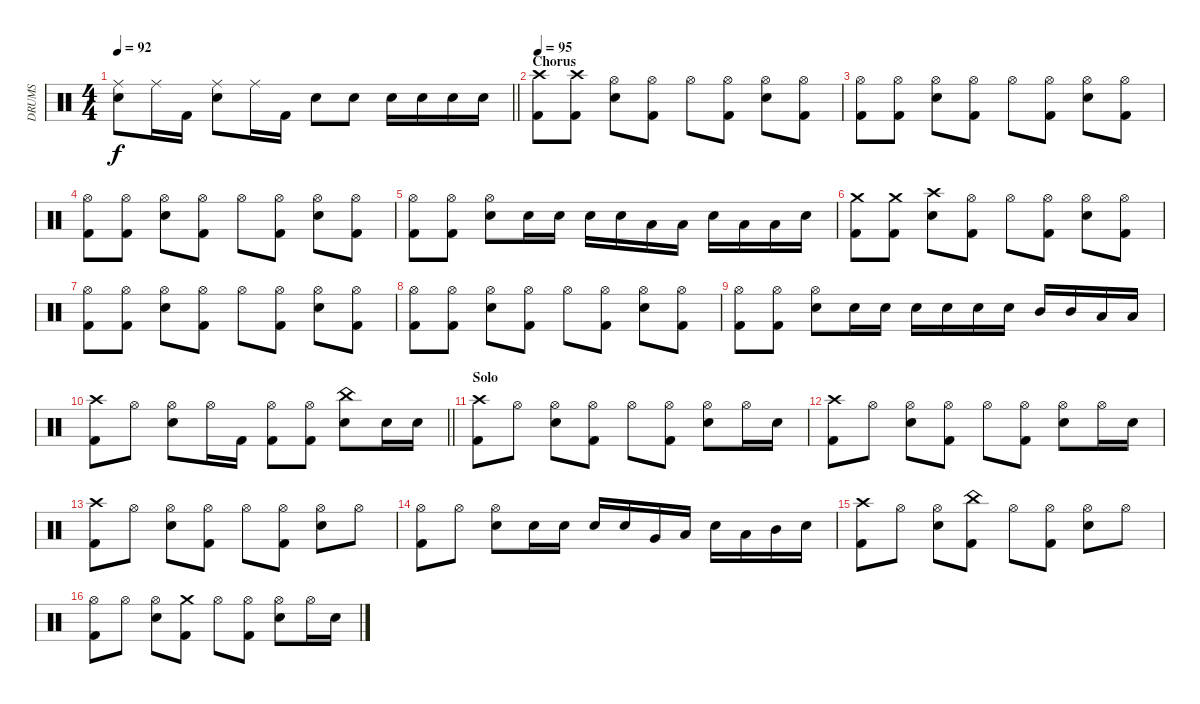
\track ("DRUMS" "DRUMS") {instrument percussion}
\staff {score}
\articulation defaults
\ts (4 4)
\tempo 92
\clef neutral
\barLineRight lightlight
\ks c
("Ride (middle)" "Snare (hit) 2").8{dy f} "Ride (middle)".16 "Kick (hit) 2".16 ("Ride (middle)" "Snare (hit) 2").8 "Ride (middle)".16 "Kick (hit) 2".16 "Snare (hit) 2".8 "Snare (hit) 2".8 "Snare (hit) 2".16 "Snare (hit) 2".16 "Snare (hit) 2".16 "Snare (hit) 2".16 |
\section ("" "Chorus")
\tempo 95
("Crash high (hit)" "Kick (hit) 2").8 ("Crash high (hit)" "Kick (hit) 2").8 ("Hi-Hat (open)" "Snare (hit) 2").8 ("Hi-Hat (open)" "Kick (hit) 2").8 "Hi-Hat (open)".8 ("Hi-Hat (open)" "Kick (hit) 2").8 ("Hi-Hat (open)" "Snare (hit) 2").8 ("Hi-Hat (open)" "Kick (hit) 2").8 |
("Hi-Hat (open)" "Kick (hit) 2").8 ("Hi-Hat (open)" "Kick (hit) 2").8 ("Hi-Hat (open)" "Snare (hit) 2").8 ("Hi-Hat (open)" "Kick (hit) 2").8 "Hi-Hat (open)".8 ("Hi-Hat (open)" "Kick (hit) 2").8 ("Hi-Hat (open)" "Snare (hit) 2").8 ("Hi-Hat (open)" "Kick (hit) 2").8 |
("Hi-Hat (open)" "Kick (hit) 2").8 ("Hi-Hat (open)" "Kick (hit) 2").8 ("Hi-Hat (open)" "Snare (hit) 2").8 ("Hi-Hat (open)" "Kick (hit) 2").8 "Hi-Hat (open)".8 ("Hi-Hat (open)" "Kick (hit) 2").8 ("Hi-Hat (open)" "Snare (hit) 2").8 ("Hi-Hat (open)" "Kick (hit) 2").8 |
("Hi-Hat (open)" "Kick (hit) 2").8 ("Hi-Hat (open)" "Kick (hit) 2").8 ("Hi-Hat (open)" "Snare (hit) 2").8 "Snare (hit) 2".16 "Snare (hit) 2".16 "Snare (hit) 2".16 "Snare (hit) 2".16 "Low Tom (hit)".16 "Low Tom (hit)".16 "Snare (hit) 2".16 "Low Tom (hit)".16 "Low Tom (hit)".16 "Snare (hit) 2".16 |
("Crash medium (hit)" "Kick (hit) 2").8 ("Crash medium (hit)" "Kick (hit) 2").8 ("Crash high (hit)" "Snare (hit) 2").8 ("Hi-Hat (open)" "Kick (hit) 2").8 "Hi-Hat (open)".8 ("Hi-Hat (open)" "Kick (hit) 2").8 ("Hi-Hat (open)" "Snare (hit) 2").8 ("Hi-Hat (open)" "Kick (hit) 2").8 |
("Hi-Hat (open)" "Kick (hit) 2").8 ("Hi-Hat (open)" "Kick (hit) 2").8 ("Hi-Hat (open)" "Snare (hit) 2").8 ("Hi-Hat (open)" "Kick (hit) 2").8 "Hi-Hat (open)".8 ("Hi-Hat (open)" "Kick (hit) 2").8 ("Hi-Hat (open)" "Snare (hit) 2").8 ("Hi-Hat (open)" "Kick (hit) 2").8 |
("Hi-Hat (open)" "Kick (hit) 2").8 ("Hi-Hat (open)" "Kick (hit) 2").8 ("Hi-Hat (open)" "Snare (hit) 2").8 ("Hi-Hat (open)" "Kick (hit) 2").8 "Hi-Hat (open)".8 ("Hi-Hat (open)" "Kick (hit) 2").8 ("Hi-Hat (open)" "Snare (hit) 2").8 ("Hi-Hat (open)" "Kick (hit) 2").8 |
("Hi-Hat (open)" "Kick (hit) 2").8 ("Hi-Hat (open)" "Kick (hit) 2").8 ("Hi-Hat (open)" "Snare (hit) 2").8 "Snare (hit) 2".16 "Snare (hit) 2".16 "Snare (hit) 2".16 "Snare (hit) 2".16 "Snare (hit) 2".16 "Snare (hit) 2".16 "Mid Tom (hit)".16 "Mid Tom (hit)".16 "Low Tom (hit)".16 "Low Tom (hit)".16 |
\barLineRight lightlight
("Crash high (hit)" "Kick (hit) 2").8 "Hi-Hat (open)".8 ("Hi-Hat (open)" "Snare (hit) 2").8 "Hi-Hat (open)".16 "Kick (hit) 2".16 ("Hi-Hat (open)" "Kick (hit) 2").8 ("Hi-Hat (open)" "Kick (hit) 2").8 ("China (hit)" "Snare (hit) 2").8 "Snare (hit) 2".16 "Snare (hit) 2".16 |
\section ("" "Solo")
("Crash high (hit)" "Kick (hit) 2").8 "Hi-Hat (open)".8 ("Hi-Hat (open)" "Snare (hit) 2").8 ("Hi-Hat (open)" "Kick (hit) 2").8 "Hi-Hat (open)".8 ("Hi-Hat (open)" "Kick (hit) 2").8 ("Hi-Hat (open)" "Snare (hit) 2").8 "Hi-Hat (open)".16 "Snare (hit) 2".16 |
("Crash high (hit)" "Kick (hit) 2").8 "Hi-Hat (open)".8 ("Hi-Hat (open)" "Snare (hit) 2").8 ("Hi-Hat (open)" "Kick (hit) 2").8 "Hi-Hat (open)".8 ("Hi-Hat (open)" "Kick (hit) 2").8 ("Hi-Hat (open)" "Snare (hit) 2").8 "Hi-Hat (open)".16 "Snare (hit) 2".16 |
("Crash high (hit)" "Kick (hit) 2").8 "Hi-Hat (open)".8 ("Hi-Hat (open)" "Snare (hit) 2").8 ("Hi-Hat (open)" "Kick (hit) 2").8 "Hi-Hat (open)".8 ("Hi-Hat (open)" "Kick (hit) 2").8 ("Hi-Hat (open)" "Snare (hit) 2").8 "Hi-Hat (open)".8 |
("Hi-Hat (open)" "Kick (hit) 2").8 "Hi-Hat (open)".8 ("Hi-Hat (open)" "Snare (hit) 2").8 "Snare (hit) 2".16 "Snare (hit) 2".16 "Snare (hit) 2".16 "Snare (hit) 2".16 "Very Low Tom (hit)".16 "Low Tom (hit)".16 "Snare (hit) 2".16 "Low Tom (hit)".16 "Mid Tom (hit)".16 "Snare (hit) 2".16 |
("Crash high (hit)" "Kick (hit) 2").8 "Hi-Hat (open)".8 ("Hi-Hat (open)" "Snare (hit) 2").8 ("China (hit)" "Kick (hit) 2").8 "Hi-Hat (open)".8 ("Hi-Hat (open)" "Kick (hit) 2").8 ("Hi-Hat (open)" "Snare (hit) 2").8 "Hi-Hat (open)".8 |
("Hi-Hat (open)" "Kick (hit) 2").8 "Hi-Hat (open)".8 ("Hi-Hat (open)" "Snare (hit) 2").8 ("Crash medium (hit)" "Kick (hit) 2").8 "Hi-Hat (open)".8 ("Hi-Hat (open)" "Kick (hit) 2").8 ("Hi-Hat (open)" "Snare (hit) 2").8 "Hi-Hat (open)".16 "Snare (hit) 2".16
